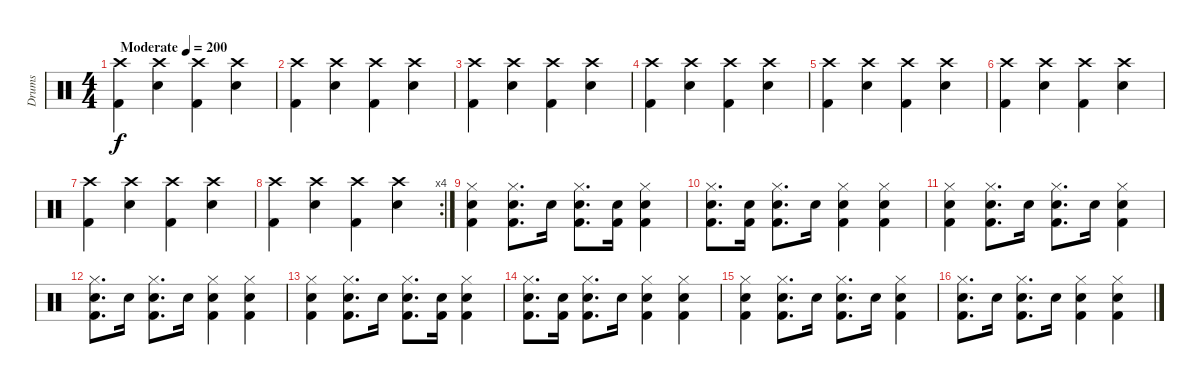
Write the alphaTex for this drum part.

\track ("Drums" "Drums") {instrument percussion}
\staff {score}
\articulation defaults
\ts (4 4)
\tempo (200 "Moderate")
\clef neutral
\ks c
("Crash high (hit)" "Kick (hit) 2").4{dy f} ("Crash high (hit)" "Snare (hit) 2").4 ("Crash high (hit)" "Kick (hit) 2").4 ("Crash high (hit)" "Snare (hit) 2").4 |
("Crash high (hit)" "Kick (hit) 2").4 ("Crash high (hit)" "Snare (hit) 2").4 ("Crash high (hit)" "Kick (hit) 2").4 ("Crash high (hit)" "Snare (hit) 2").4 |
("Crash high (hit)" "Kick (hit) 2").4 ("Crash high (hit)" "Snare (hit) 2").4 ("Crash high (hit)" "Kick (hit) 2").4 ("Crash high (hit)" "Snare (hit) 2").4 |
("Crash high (hit)" "Kick (hit) 2").4 ("Crash high (hit)" "Snare (hit) 2").4 ("Crash high (hit)" "Kick (hit) 2").4 ("Crash high (hit)" "Snare (hit) 2").4 |
("Crash high (hit)" "Kick (hit) 2").4 ("Crash high (hit)" "Snare (hit) 2").4 ("Crash high (hit)" "Kick (hit) 2").4 ("Crash high (hit)" "Snare (hit) 2").4 |
("Crash high (hit)" "Kick (hit) 2").4 ("Crash high (hit)" "Snare (hit) 2").4 ("Crash high (hit)" "Kick (hit) 2").4 ("Crash high (hit)" "Snare (hit) 2").4 |
("Crash high (hit)" "Kick (hit) 2").4 ("Crash high (hit)" "Snare (hit) 2").4 ("Crash high (hit)" "Kick (hit) 2").4 ("Crash high (hit)" "Snare (hit) 2").4 |
\rc 4
("Crash high (hit)" "Kick (hit) 2").4 ("Crash high (hit)" "Snare (hit) 2").4 ("Crash high (hit)" "Kick (hit) 2").4 ("Crash high (hit)" "Snare (hit) 2").4 |
("Hi-Hat (closed)" "Snare (hit) 2" "Kick (hit) 2").4 ("Hi-Hat (closed)" "Snare (hit) 2" "Kick (hit) 2").8{d} "Snare (hit) 2".16 ("Hi-Hat (closed)" "Snare (hit) 2" "Kick (hit) 2").8{d} ("Snare (hit) 2" "Kick (hit) 2").16 ("Hi-Hat (closed)" "Snare (hit) 2" "Kick (hit) 2").4 |
("Hi-Hat (closed)" "Snare (hit) 2" "Kick (hit) 2").8{d} ("Snare (hit) 2" "Kick (hit) 2").16 ("Hi-Hat (closed)" "Snare (hit) 2" "Kick (hit) 2").8{d} "Snare (hit) 2".16 ("Hi-Hat (closed)" "Snare (hit) 2" "Kick (hit) 2").4 ("Hi-Hat (closed)" "Snare (hit) 2" "Kick (hit) 2").4 |
("Hi-Hat (closed)" "Snare (hit) 2" "Kick (hit) 2").4 ("Hi-Hat (closed)" "Snare (hit) 2" "Kick (hit) 2").8{d} "Snare (hit) 2".16 ("Hi-Hat (closed)" "Snare (hit) 2" "Kick (hit) 2").8{d} "Snare (hit) 2".16 ("Hi-Hat (closed)" "Snare (hit) 2" "Kick (hit) 2").4 |
("Hi-Hat (closed)" "Snare (hit) 2" "Kick (hit) 2").8{d} "Snare (hit) 2".16 ("Hi-Hat (closed)" "Snare (hit) 2" "Kick (hit) 2").8{d} "Snare (hit) 2".16 ("Hi-Hat (closed)" "Snare (hit) 2" "Kick (hit) 2").4 ("Hi-Hat (closed)" "Snare (hit) 2" "Kick (hit) 2").4 |
("Hi-Hat (closed)" "Snare (hit) 2" "Kick (hit) 2").4 ("Hi-Hat (closed)" "Snare (hit) 2" "Kick (hit) 2").8{d} "Snare (hit) 2".16 ("Hi-Hat (closed)" "Snare (hit) 2" "Kick (hit) 2").8{d} ("Snare (hit) 2" "Kick (hit) 2").16 ("Hi-Hat (closed)" "Snare (hit) 2" "Kick (hit) 2").4 |
("Hi-Hat (closed)" "Snare (hit) 2" "Kick (hit) 2").8{d} ("Snare (hit) 2" "Kick (hit) 2").16 ("Hi-Hat (closed)" "Snare (hit) 2" "Kick (hit) 2").8{d} "Snare (hit) 2".16 ("Hi-Hat (closed)" "Snare (hit) 2" "Kick (hit) 2").4 ("Hi-Hat (closed)" "Snare (hit) 2" "Kick (hit) 2").4 |
("Hi-Hat (closed)" "Snare (hit) 2" "Kick (hit) 2").4 ("Hi-Hat (closed)" "Snare (hit) 2" "Kick (hit) 2").8{d} "Snare (hit) 2".16 ("Hi-Hat (closed)" "Snare (hit) 2" "Kick (hit) 2").8{d} "Snare (hit) 2".16 ("Hi-Hat (closed)" "Snare (hit) 2" "Kick (hit) 2").4 |
("Hi-Hat (closed)" "Snare (hit) 2" "Kick (hit) 2").8{d} "Snare (hit) 2".16 ("Hi-Hat (closed)" "Snare (hit) 2" "Kick (hit) 2").8{d} "Snare (hit) 2".16 ("Hi-Hat (closed)" "Snare (hit) 2" "Kick (hit) 2").4 ("Hi-Hat (closed)" "Snare (hit) 2" "Kick (hit) 2").4
